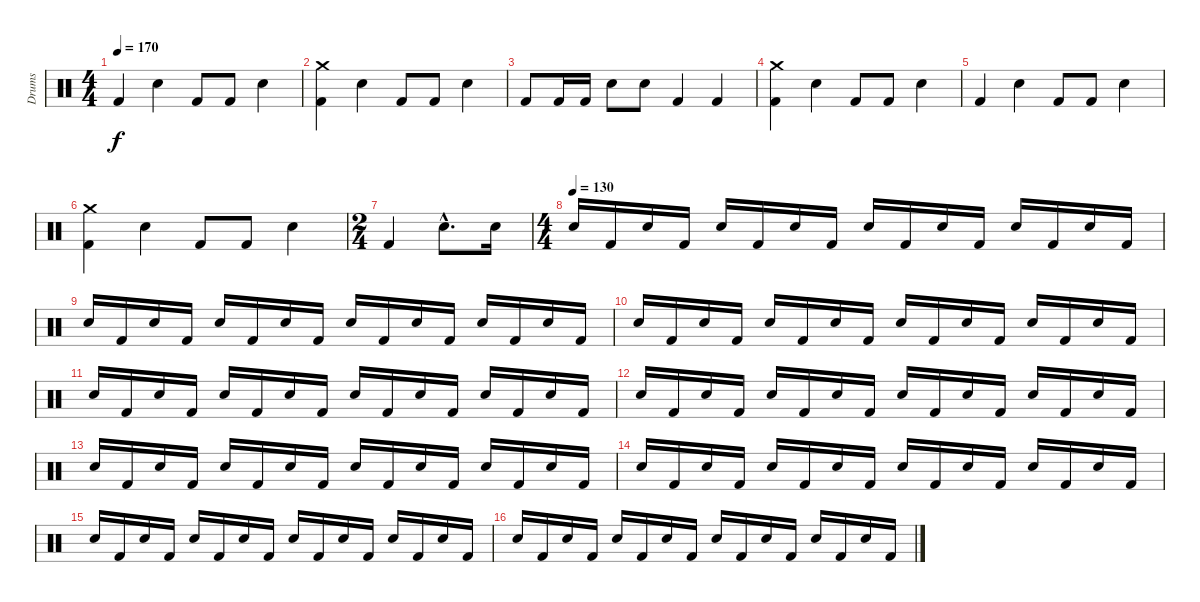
\track ("Drums" "Drums") {instrument percussion}
\staff {score}
\articulation defaults
\ts (4 4)
\tempo 170
\clef neutral
\ks c "Kick (hit) 2".4{dy f} "Snare (hit) 2".4 "Kick (hit) 2".8 "Kick (hit) 2".8 "Snare (hit) 2".4
|
("Crash medium (hit)" "Kick (hit) 2").4 "Snare (hit) 2".4 "Kick (hit) 2".8 "Kick (hit) 2".8 "Snare (hit) 2".4 |
"Kick (hit) 2".8 "Kick (hit) 2".16 "Kick (hit) 2".16 "Snare (hit) 2".8 "Snare (hit) 2".8 "Kick (hit) 2".4 "Kick (hit) 2".4 |
("Crash medium (hit)" "Kick (hit) 2").4 "Snare (hit) 2".4 "Kick (hit) 2".8 "Kick (hit) 2".8 "Snare (hit) 2".4 |
"Kick (hit) 2".4 "Snare (hit) 2".4 "Kick (hit) 2".8 "Kick (hit) 2".8 "Snare (hit) 2".4 |
("Crash medium (hit)" "Kick (hit) 2").4 "Snare (hit) 2".4 "Kick (hit) 2".8 "Kick (hit) 2".8 "Snare (hit) 2".4 |
\ts (2 4)
"Kick (hit) 2".4 "Snare (hit) 2"{hac}.8{d} "Snare (hit) 2".16 |
\ts (4 4)
\tempo 155
\tempo (130)
"Snare (hit) 2".16 "Kick (hit) 2".16 "Snare (hit) 2".16 "Kick (hit) 2".16 "Snare (hit) 2".16 "Kick (hit) 2".16 "Snare (hit) 2".16 "Kick (hit) 2".16 "Snare (hit) 2".16 "Kick (hit) 2".16 "Snare (hit) 2".16 "Kick (hit) 2".16 "Snare (hit) 2".16 "Kick (hit) 2".16 "Snare (hit) 2".16 "Kick (hit) 2".16 |
"Snare (hit) 2".16 "Kick (hit) 2".16 "Snare (hit) 2".16 "Kick (hit) 2".16 "Snare (hit) 2".16 "Kick (hit) 2".16 "Snare (hit) 2".16 "Kick (hit) 2".16 "Snare (hit) 2".16 "Kick (hit) 2".16 "Snare (hit) 2".16 "Kick (hit) 2".16 "Snare (hit) 2".16 "Kick (hit) 2".16 "Snare (hit) 2".16 "Kick (hit) 2".16 |
"Snare (hit) 2".16 "Kick (hit) 2".16 "Snare (hit) 2".16 "Kick (hit) 2".16 "Snare (hit) 2".16 "Kick (hit) 2".16 "Snare (hit) 2".16 "Kick (hit) 2".16 "Snare (hit) 2".16 "Kick (hit) 2".16 "Snare (hit) 2".16 "Kick (hit) 2".16 "Snare (hit) 2".16 "Kick (hit) 2".16 "Snare (hit) 2".16 "Kick (hit) 2".16 |
"Snare (hit) 2".16 "Kick (hit) 2".16 "Snare (hit) 2".16 "Kick (hit) 2".16 "Snare (hit) 2".16 "Kick (hit) 2".16 "Snare (hit) 2".16 "Kick (hit) 2".16 "Snare (hit) 2".16 "Kick (hit) 2".16 "Snare (hit) 2".16 "Kick (hit) 2".16 "Snare (hit) 2".16 "Kick (hit) 2".16 "Snare (hit) 2".16 "Kick (hit) 2".16 |
"Snare (hit) 2".16 "Kick (hit) 2".16 "Snare (hit) 2".16 "Kick (hit) 2".16 "Snare (hit) 2".16 "Kick (hit) 2".16 "Snare (hit) 2".16 "Kick (hit) 2".16 "Snare (hit) 2".16 "Kick (hit) 2".16 "Snare (hit) 2".16 "Kick (hit) 2".16 "Snare (hit) 2".16 "Kick (hit) 2".16 "Snare (hit) 2".16 "Kick (hit) 2".16 |
"Snare (hit) 2".16 "Kick (hit) 2".16 "Snare (hit) 2".16 "Kick (hit) 2".16 "Snare (hit) 2".16 "Kick (hit) 2".16 "Snare (hit) 2".16 "Kick (hit) 2".16 "Snare (hit) 2".16 "Kick (hit) 2".16 "Snare (hit) 2".16 "Kick (hit) 2".16 "Snare (hit) 2".16 "Kick (hit) 2".16 "Snare (hit) 2".16 "Kick (hit) 2".16 |
"Snare (hit) 2".16 "Kick (hit) 2".16 "Snare (hit) 2".16 "Kick (hit) 2".16 "Snare (hit) 2".16 "Kick (hit) 2".16 "Snare (hit) 2".16 "Kick (hit) 2".16 "Snare (hit) 2".16 "Kick (hit) 2".16 "Snare (hit) 2".16 "Kick (hit) 2".16 "Snare (hit) 2".16 "Kick (hit) 2".16 "Snare (hit) 2".16 "Kick (hit) 2".16 |
"Snare (hit) 2".16 "Kick (hit) 2".16 "Snare (hit) 2".16 "Kick (hit) 2".16 "Snare (hit) 2".16 "Kick (hit) 2".16 "Snare (hit) 2".16 "Kick (hit) 2".16 "Snare (hit) 2".16 "Kick (hit) 2".16 "Snare (hit) 2".16 "Kick (hit) 2".16 "Snare (hit) 2".16 "Kick (hit) 2".16 "Snare (hit) 2".16 "Kick (hit) 2".16 |
"Snare (hit) 2".16 "Kick (hit) 2".16 "Snare (hit) 2".16 "Kick (hit) 2".16 "Snare (hit) 2".16 "Kick (hit) 2".16 "Snare (hit) 2".16 "Kick (hit) 2".16 "Snare (hit) 2".16 "Kick (hit) 2".16 "Snare (hit) 2".16 "Kick (hit) 2".16 "Snare (hit) 2".16 "Kick (hit) 2".16 "Snare (hit) 2".16 "Kick (hit) 2".16
